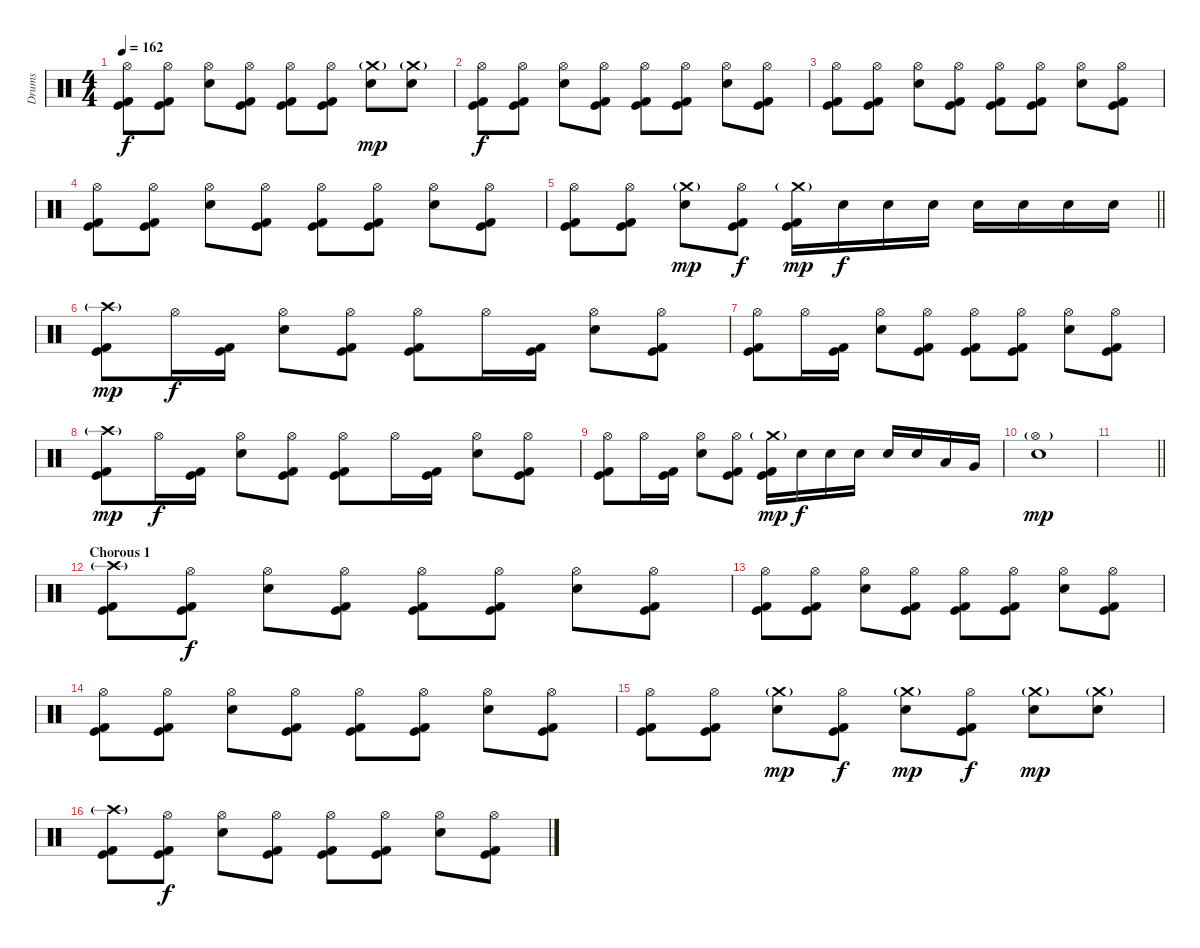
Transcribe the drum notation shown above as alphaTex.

\track ("Drums" "Drums") {instrument percussion}
\staff {score}
\articulation defaults
\ts (4 4)
\tempo 162
\clef neutral
\ks c
("Hi-Hat (open)" "Kick (hit)" "Kick (hit) 2").8{dy f} ("Hi-Hat (open)" "Kick (hit)" "Kick (hit) 2").8 ("Hi-Hat (open)" "Electric Snare (hit)").8 ("Hi-Hat (open)" "Kick (hit)" "Kick (hit) 2").8 ("Hi-Hat (open)" "Kick (hit)" "Kick (hit) 2").8 ("Hi-Hat (open)" "Kick (hit)" "Kick (hit) 2").8 ("Crash medium (hit)"{g} "Electric Snare (hit)").8{dy mp} ("Crash medium (hit)"{g} "Electric Snare (hit)").8 |
("Hi-Hat (open)" "Kick (hit)" "Kick (hit) 2").8{dy f} ("Hi-Hat (open)" "Kick (hit)" "Kick (hit) 2").8 ("Hi-Hat (open)" "Electric Snare (hit)").8 ("Hi-Hat (open)" "Kick (hit)" "Kick (hit) 2").8 ("Hi-Hat (open)" "Kick (hit)" "Kick (hit) 2").8 ("Hi-Hat (open)" "Kick (hit)" "Kick (hit) 2").8 ("Hi-Hat (open)" "Electric Snare (hit)").8 ("Hi-Hat (open)" "Kick (hit)" "Kick (hit) 2").8 |
("Hi-Hat (open)" "Kick (hit)" "Kick (hit) 2").8 ("Hi-Hat (open)" "Kick (hit)" "Kick (hit) 2").8 ("Hi-Hat (open)" "Electric Snare (hit)").8 ("Hi-Hat (open)" "Kick (hit)" "Kick (hit) 2").8 ("Hi-Hat (open)" "Kick (hit)" "Kick (hit) 2").8 ("Hi-Hat (open)" "Kick (hit)" "Kick (hit) 2").8 ("Hi-Hat (open)" "Electric Snare (hit)").8 ("Hi-Hat (open)" "Kick (hit)" "Kick (hit) 2").8 |
("Hi-Hat (open)" "Kick (hit)" "Kick (hit) 2").8 ("Hi-Hat (open)" "Kick (hit)" "Kick (hit) 2").8 ("Hi-Hat (open)" "Electric Snare (hit)").8 ("Hi-Hat (open)" "Kick (hit)" "Kick (hit) 2").8 ("Hi-Hat (open)" "Kick (hit)" "Kick (hit) 2").8 ("Hi-Hat (open)" "Kick (hit)" "Kick (hit) 2").8 ("Hi-Hat (open)" "Electric Snare (hit)").8 ("Hi-Hat (open)" "Kick (hit)" "Kick (hit) 2").8 |
\barLineRight lightlight
("Hi-Hat (open)" "Kick (hit)" "Kick (hit) 2").8 ("Hi-Hat (open)" "Kick (hit)" "Kick (hit) 2").8 ("Crash medium (hit)"{g} "Electric Snare (hit)").8{dy mp} ("Hi-Hat (open)" "Kick (hit)" "Kick (hit) 2").8{dy f} ("Crash medium (hit)"{g} "Kick (hit)" "Kick (hit) 2").16{dy mp} "Electric Snare (hit)".16{dy f} "Electric Snare (hit)".16 "Electric Snare (hit)".16 "Electric Snare (hit)".16 "Electric Snare (hit)".16 "Electric Snare (hit)".16 "Electric Snare (hit)".16 |
\section ("" "")
("Crash high (hit)"{g} "Kick (hit)" "Kick (hit) 2").8{dy mp} "Hi-Hat (open)".16{dy f} ("Kick (hit)" "Kick (hit) 2").16 ("Hi-Hat (open)" "Electric Snare (hit)").8 ("Hi-Hat (open)" "Kick (hit)" "Kick (hit) 2").8 ("Hi-Hat (open)" "Kick (hit)" "Kick (hit) 2").8 "Hi-Hat (open)".16 ("Kick (hit)" "Kick (hit) 2").16 ("Hi-Hat (open)" "Electric Snare (hit)").8 ("Hi-Hat (open)" "Kick (hit)" "Kick (hit) 2").8 |
("Hi-Hat (open)" "Kick (hit)" "Kick (hit) 2").8 "Hi-Hat (open)".16 ("Kick (hit)" "Kick (hit) 2").16 ("Hi-Hat (open)" "Electric Snare (hit)").8 ("Hi-Hat (open)" "Kick (hit)" "Kick (hit) 2").8 ("Hi-Hat (open)" "Kick (hit)" "Kick (hit) 2").8 ("Hi-Hat (open)" "Kick (hit)" "Kick (hit) 2").8 ("Hi-Hat (open)" "Electric Snare (hit)").8 ("Hi-Hat (open)" "Kick (hit)" "Kick (hit) 2").8 |
("Crash high (hit)"{g} "Kick (hit)" "Kick (hit) 2").8{dy mp} "Hi-Hat (open)".16{dy f} ("Kick (hit)" "Kick (hit) 2").16 ("Hi-Hat (open)" "Electric Snare (hit)").8 ("Hi-Hat (open)" "Kick (hit)" "Kick (hit) 2").8 ("Hi-Hat (open)" "Kick (hit)" "Kick (hit) 2").8 "Hi-Hat (open)".16 ("Kick (hit)" "Kick (hit) 2").16 ("Hi-Hat (open)" "Electric Snare (hit)").8 ("Hi-Hat (open)" "Kick (hit)" "Kick (hit) 2").8 |
("Hi-Hat (open)" "Kick (hit)" "Kick (hit) 2").8 "Hi-Hat (open)".16 ("Kick (hit)" "Kick (hit) 2").16 ("Hi-Hat (open)" "Electric Snare (hit)").8 ("Hi-Hat (open)" "Kick (hit)" "Kick (hit) 2").8 ("Crash medium (hit)"{g} "Kick (hit)" "Kick (hit) 2").16{dy mp} "Electric Snare (hit)".16{dy f} "Electric Snare (hit)".16 "Electric Snare (hit)".16 "Electric Snare (hit)".16 "Electric Snare (hit)".16 "Low Tom (hit)".16 "Very Low Tom (hit)".16 |
("Hi-Hat (open)"{g} "Electric Snare (hit)").1{dy mp} |
\barLineRight lightlight
|
\section ("" "Chorous 1")
("Crash high (hit)"{g} "Kick (hit)" "Kick (hit) 2").8 ("Hi-Hat (open)" "Kick (hit)" "Kick (hit) 2").8{dy f} ("Hi-Hat (open)" "Electric Snare (hit)").8 ("Hi-Hat (open)" "Kick (hit)" "Kick (hit) 2").8 ("Hi-Hat (open)" "Kick (hit)" "Kick (hit) 2").8 ("Hi-Hat (open)" "Kick (hit)" "Kick (hit) 2").8 ("Hi-Hat (open)" "Electric Snare (hit)").8 ("Hi-Hat (open)" "Kick (hit)" "Kick (hit) 2").8 |
("Hi-Hat (open)" "Kick (hit)" "Kick (hit) 2").8 ("Hi-Hat (open)" "Kick (hit)" "Kick (hit) 2").8 ("Hi-Hat (open)" "Electric Snare (hit)").8 ("Hi-Hat (open)" "Kick (hit)" "Kick (hit) 2").8 ("Hi-Hat (open)" "Kick (hit)" "Kick (hit) 2").8 ("Hi-Hat (open)" "Kick (hit)" "Kick (hit) 2").8 ("Hi-Hat (open)" "Electric Snare (hit)").8 ("Hi-Hat (open)" "Kick (hit)" "Kick (hit) 2").8 |
("Hi-Hat (open)" "Kick (hit)" "Kick (hit) 2").8 ("Hi-Hat (open)" "Kick (hit)" "Kick (hit) 2").8 ("Hi-Hat (open)" "Electric Snare (hit)").8 ("Hi-Hat (open)" "Kick (hit)" "Kick (hit) 2").8 ("Hi-Hat (open)" "Kick (hit)" "Kick (hit) 2").8 ("Hi-Hat (open)" "Kick (hit)" "Kick (hit) 2").8 ("Hi-Hat (open)" "Electric Snare (hit)").8 ("Hi-Hat (open)" "Kick (hit)" "Kick (hit) 2").8 |
("Hi-Hat (open)" "Kick (hit)" "Kick (hit) 2").8 ("Hi-Hat (open)" "Kick (hit)" "Kick (hit) 2").8 ("Crash medium (hit)"{g} "Electric Snare (hit)").8{dy mp} ("Hi-Hat (open)" "Kick (hit)" "Kick (hit) 2").8{dy f} ("Crash medium (hit)"{g} "Electric Snare (hit)").8{dy mp} ("Hi-Hat (open)" "Kick (hit)" "Kick (hit) 2").8{dy f} ("Crash medium (hit)"{g} "Electric Snare (hit)").8{dy mp} ("Crash medium (hit)"{g} "Electric Snare (hit)").8 |
("Crash high (hit)"{g} "Kick (hit)" "Kick (hit) 2").8 ("Hi-Hat (open)" "Kick (hit)" "Kick (hit) 2").8{dy f} ("Hi-Hat (open)" "Electric Snare (hit)").8 ("Hi-Hat (open)" "Kick (hit)" "Kick (hit) 2").8 ("Hi-Hat (open)" "Kick (hit)" "Kick (hit) 2").8 ("Hi-Hat (open)" "Kick (hit)" "Kick (hit) 2").8 ("Hi-Hat (open)" "Electric Snare (hit)").8 ("Hi-Hat (open)" "Kick (hit)" "Kick (hit) 2").8
